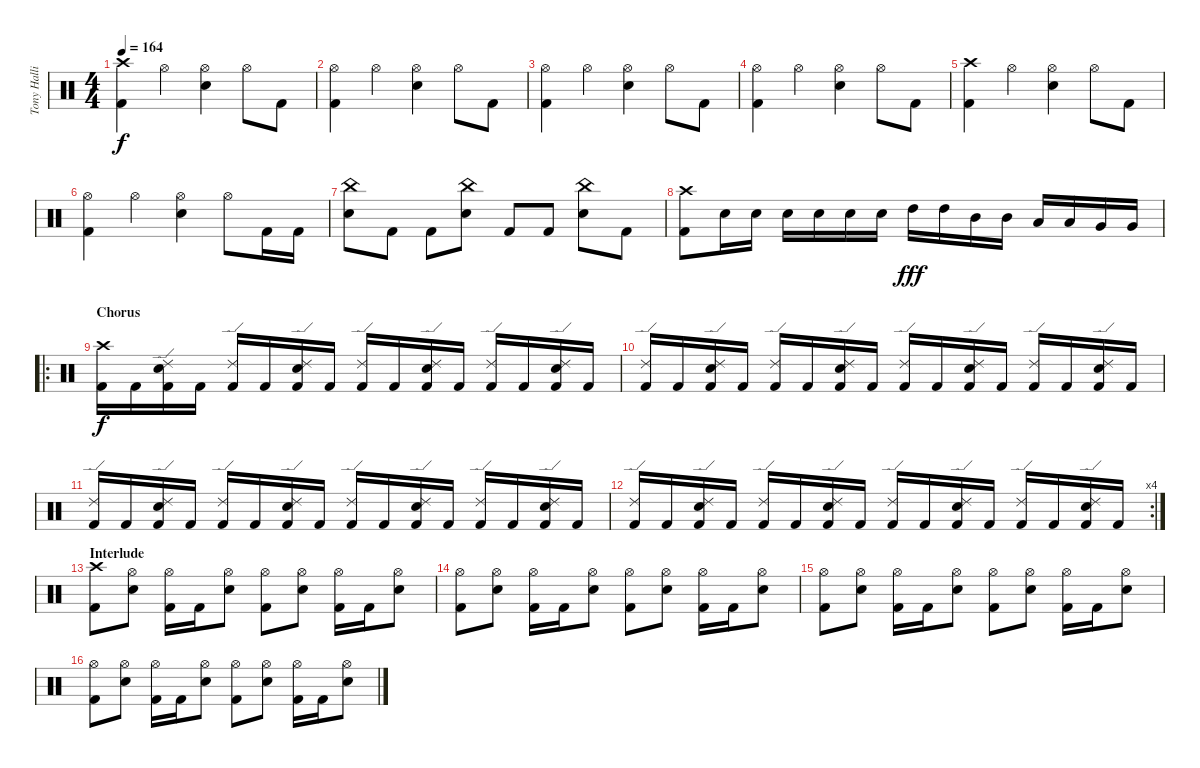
\track ("Tony Hallio - Drums" "Tony Halli") {instrument percussion}
\staff {score}
\articulation defaults
\ts (4 4)
\tempo 164
\clef neutral
\ks c
("Crash high (hit)" "Kick (hit) 2").4{dy f} "Hi-Hat (open)".4 ("Hi-Hat (open)" "Electric Snare (hit)").4 "Hi-Hat (open)".8 "Kick (hit) 2".8 |
("Hi-Hat (open)" "Kick (hit) 2").4 "Hi-Hat (open)".4 ("Hi-Hat (open)" "Electric Snare (hit)").4 "Hi-Hat (open)".8 "Kick (hit) 2".8 |
("Hi-Hat (open)" "Kick (hit) 2").4 "Hi-Hat (open)".4 ("Hi-Hat (open)" "Electric Snare (hit)").4 "Hi-Hat (open)".8 "Kick (hit) 2".8 |
("Hi-Hat (open)" "Kick (hit) 2").4 "Hi-Hat (open)".4 ("Hi-Hat (open)" "Electric Snare (hit)").4 "Hi-Hat (open)".8 "Kick (hit) 2".8 |
("Crash high (hit)" "Kick (hit) 2").4 "Hi-Hat (open)".4 ("Hi-Hat (open)" "Electric Snare (hit)").4 "Hi-Hat (open)".8 "Kick (hit) 2".8 |
("Hi-Hat (open)" "Kick (hit) 2").4 "Hi-Hat (open)".4 ("Hi-Hat (open)" "Electric Snare (hit)").4 "Hi-Hat (open)".8 "Kick (hit) 2".16 "Kick (hit) 2".16 |
("China (hit)" "Electric Snare (hit)").8 "Kick (hit) 2".8 "Kick (hit) 2".8 ("China (hit)" "Electric Snare (hit)").8 "Kick (hit) 2".8 "Kick (hit) 2".8 ("China (hit)" "Electric Snare (hit)").8 "Kick (hit) 2".8 |
("Crash high (hit)" "Kick (hit) 2").8 "Electric Snare (hit)".16 "Electric Snare (hit)".16 "Electric Snare (hit)".16 "Electric Snare (hit)".16 "Electric Snare (hit)".16 "Electric Snare (hit)".16 "High Tom (hit)".16{dy fff} "High Tom (hit)".16 "Mid Tom (hit)".16 "Mid Tom (hit)".16 "Low Tom (hit)".16 "Low Tom (hit)".16 "Very Low Tom (hit)".16 "Very Low Tom (hit)".16 |
\ro
\section ("" "Chorus")
("Crash high (hit)" "Kick (hit) 2").16{dy f} "Kick (hit) 2".16 ("Ride (edge) 2" "Electric Snare (hit)" "Kick (hit) 2").16 "Kick (hit) 2".16 ("Ride (edge) 2" "Kick (hit) 2").16 "Kick (hit) 2".16 ("Ride (edge) 2" "Electric Snare (hit)" "Kick (hit) 2").16 "Kick (hit) 2".16 ("Ride (edge) 2" "Kick (hit) 2").16 "Kick (hit) 2".16 ("Ride (edge) 2" "Electric Snare (hit)" "Kick (hit) 2").16 "Kick (hit) 2".16 ("Ride (edge) 2" "Kick (hit) 2").16 "Kick (hit) 2".16 ("Ride (edge) 2" "Electric Snare (hit)" "Kick (hit) 2").16 "Kick (hit) 2".16 |
("Ride (edge) 2" "Kick (hit) 2").16 "Kick (hit) 2".16 ("Ride (edge) 2" "Electric Snare (hit)" "Kick (hit) 2").16 "Kick (hit) 2".16 ("Ride (edge) 2" "Kick (hit) 2").16 "Kick (hit) 2".16 ("Ride (edge) 2" "Electric Snare (hit)" "Kick (hit) 2").16 "Kick (hit) 2".16 ("Ride (edge) 2" "Kick (hit) 2").16 "Kick (hit) 2".16 ("Ride (edge) 2" "Electric Snare (hit)" "Kick (hit) 2").16 "Kick (hit) 2".16 ("Ride (edge) 2" "Kick (hit) 2").16 "Kick (hit) 2".16 ("Ride (edge) 2" "Electric Snare (hit)" "Kick (hit) 2").16 "Kick (hit) 2".16 |
("Ride (edge) 2" "Kick (hit) 2").16 "Kick (hit) 2".16 ("Ride (edge) 2" "Electric Snare (hit)" "Kick (hit) 2").16 "Kick (hit) 2".16 ("Ride (edge) 2" "Kick (hit) 2").16 "Kick (hit) 2".16 ("Ride (edge) 2" "Electric Snare (hit)" "Kick (hit) 2").16 "Kick (hit) 2".16 ("Ride (edge) 2" "Kick (hit) 2").16 "Kick (hit) 2".16 ("Ride (edge) 2" "Electric Snare (hit)" "Kick (hit) 2").16 "Kick (hit) 2".16 ("Ride (edge) 2" "Kick (hit) 2").16 "Kick (hit) 2".16 ("Ride (edge) 2" "Electric Snare (hit)" "Kick (hit) 2").16 "Kick (hit) 2".16 |
\rc 4
("Ride (edge) 2" "Kick (hit) 2").16 "Kick (hit) 2".16 ("Ride (edge) 2" "Electric Snare (hit)" "Kick (hit) 2").16 "Kick (hit) 2".16 ("Ride (edge) 2" "Kick (hit) 2").16 "Kick (hit) 2".16 ("Ride (edge) 2" "Electric Snare (hit)" "Kick (hit) 2").16 "Kick (hit) 2".16 ("Ride (edge) 2" "Kick (hit) 2").16 "Kick (hit) 2".16 ("Ride (edge) 2" "Electric Snare (hit)" "Kick (hit) 2").16 "Kick (hit) 2".16 ("Ride (edge) 2" "Kick (hit) 2").16 "Kick (hit) 2".16 ("Ride (edge) 2" "Electric Snare (hit)" "Kick (hit) 2").16 "Kick (hit) 2".16 |
\section ("" "Interlude")
("Crash high (hit)" "Kick (hit) 2").8 ("Hi-Hat (open)" "Electric Snare (hit)").8 ("Hi-Hat (open)" "Kick (hit) 2").16 "Kick (hit) 2".16 ("Hi-Hat (open)" "Electric Snare (hit)").8 ("Hi-Hat (open)" "Kick (hit) 2").8 ("Hi-Hat (open)" "Electric Snare (hit)").8 ("Hi-Hat (open)" "Kick (hit) 2").16 "Kick (hit) 2".16 ("Hi-Hat (open)" "Electric Snare (hit)").8 |
("Hi-Hat (open)" "Kick (hit) 2").8 ("Hi-Hat (open)" "Electric Snare (hit)").8 ("Hi-Hat (open)" "Kick (hit) 2").16 "Kick (hit) 2".16 ("Hi-Hat (open)" "Electric Snare (hit)").8 ("Hi-Hat (open)" "Kick (hit) 2").8 ("Hi-Hat (open)" "Electric Snare (hit)").8 ("Hi-Hat (open)" "Kick (hit) 2").16 "Kick (hit) 2".16 ("Hi-Hat (open)" "Electric Snare (hit)").8 |
("Hi-Hat (open)" "Kick (hit) 2").8 ("Hi-Hat (open)" "Electric Snare (hit)").8 ("Hi-Hat (open)" "Kick (hit) 2").16 "Kick (hit) 2".16 ("Hi-Hat (open)" "Electric Snare (hit)").8 ("Hi-Hat (open)" "Kick (hit) 2").8 ("Hi-Hat (open)" "Electric Snare (hit)").8 ("Hi-Hat (open)" "Kick (hit) 2").16 "Kick (hit) 2".16 ("Hi-Hat (open)" "Electric Snare (hit)").8 |
("Hi-Hat (open)" "Kick (hit) 2").8 ("Hi-Hat (open)" "Electric Snare (hit)").8 ("Hi-Hat (open)" "Kick (hit) 2").16 "Kick (hit) 2".16 ("Hi-Hat (open)" "Electric Snare (hit)").8 ("Hi-Hat (open)" "Kick (hit) 2").8 ("Hi-Hat (open)" "Electric Snare (hit)").8 ("Hi-Hat (open)" "Kick (hit) 2").16 "Kick (hit) 2".16 ("Hi-Hat (open)" "Electric Snare (hit)").8
